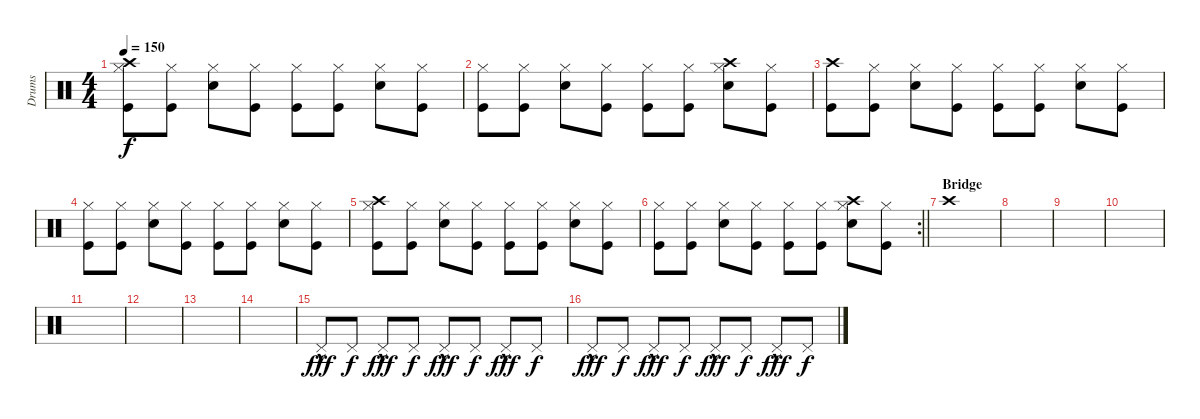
\track ("Drums" "Drums") {instrument percussion}
\staff {score}
\articulation defaults
\ts (4 4)
\tempo 150
\clef neutral
\ks c
("Crash high (hit)" "Kick (hit)" "Hi-Hat (closed)").8{dy f} ("Kick (hit)" "Hi-Hat (closed)").8 ("Electric Snare (hit)" "Hi-Hat (closed)").8 ("Kick (hit)" "Hi-Hat (closed)").8 ("Kick (hit)" "Hi-Hat (closed)").8 ("Kick (hit)" "Hi-Hat (closed)").8 ("Electric Snare (hit)" "Hi-Hat (closed)").8 ("Kick (hit)" "Hi-Hat (closed)").8 |
("Kick (hit)" "Hi-Hat (closed)").8 ("Kick (hit)" "Hi-Hat (closed)").8 ("Electric Snare (hit)" "Hi-Hat (closed)").8 ("Kick (hit)" "Hi-Hat (closed)").8 ("Kick (hit)" "Hi-Hat (closed)").8 ("Kick (hit)" "Hi-Hat (closed)").8 ("Crash high (hit)" "Electric Snare (hit)" "Hi-Hat (closed)").8 ("Kick (hit)" "Hi-Hat (closed)").8 |
("Crash high (hit)" "Kick (hit)").8 ("Kick (hit)" "Hi-Hat (closed)").8 ("Electric Snare (hit)" "Hi-Hat (closed)").8 ("Kick (hit)" "Hi-Hat (closed)").8 ("Kick (hit)" "Hi-Hat (closed)").8 ("Kick (hit)" "Hi-Hat (closed)").8 ("Electric Snare (hit)" "Hi-Hat (closed)").8 ("Kick (hit)" "Hi-Hat (closed)").8 |
("Kick (hit)" "Hi-Hat (closed)").8 ("Kick (hit)" "Hi-Hat (closed)").8 ("Electric Snare (hit)" "Hi-Hat (closed)").8 ("Kick (hit)" "Hi-Hat (closed)").8 ("Kick (hit)" "Hi-Hat (closed)").8 ("Kick (hit)" "Hi-Hat (closed)").8 ("Electric Snare (hit)" "Hi-Hat (closed)").8 ("Kick (hit)" "Hi-Hat (closed)").8 |
("Crash high (hit)" "Kick (hit)" "Hi-Hat (closed)").8 ("Kick (hit)" "Hi-Hat (closed)").8 ("Electric Snare (hit)" "Hi-Hat (closed)").8 ("Kick (hit)" "Hi-Hat (closed)").8 ("Kick (hit)" "Hi-Hat (closed)").8 ("Kick (hit)" "Hi-Hat (closed)").8 ("Electric Snare (hit)" "Hi-Hat (closed)").8 ("Kick (hit)" "Hi-Hat (closed)").8 |
\rc 2
\barLineRight lightlight
("Kick (hit)" "Hi-Hat (closed)").8 ("Kick (hit)" "Hi-Hat (closed)").8 ("Electric Snare (hit)" "Hi-Hat (closed)").8 ("Kick (hit)" "Hi-Hat (closed)").8 ("Kick (hit)" "Hi-Hat (closed)").8 ("Kick (hit)" "Hi-Hat (closed)").8 ("Crash high (hit)" "Electric Snare (hit)" "Hi-Hat (closed)").8 ("Kick (hit)" "Hi-Hat (closed)").8 |
\section ("" "Bridge")
"Crash high (hit)".1 |
|
|
|
|
|
|
|
"Pedal Hi-Hat (hit)"{hac}.8{dy fff} "Pedal Hi-Hat (hit)".8{dy f} "Pedal Hi-Hat (hit)"{hac}.8{dy fff} "Pedal Hi-Hat (hit)".8{dy f} "Pedal Hi-Hat (hit)"{hac}.8{dy fff} "Pedal Hi-Hat (hit)".8{dy f} "Pedal Hi-Hat (hit)"{hac}.8{dy fff} "Pedal Hi-Hat (hit)".8{dy f} |
"Pedal Hi-Hat (hit)"{hac}.8{dy fff} "Pedal Hi-Hat (hit)".8{dy f} "Pedal Hi-Hat (hit)"{hac}.8{dy fff} "Pedal Hi-Hat (hit)".8{dy f} "Pedal Hi-Hat (hit)"{hac}.8{dy fff} "Pedal Hi-Hat (hit)".8{dy f} "Pedal Hi-Hat (hit)"{hac}.8{dy fff} "Pedal Hi-Hat (hit)".8{dy f}
